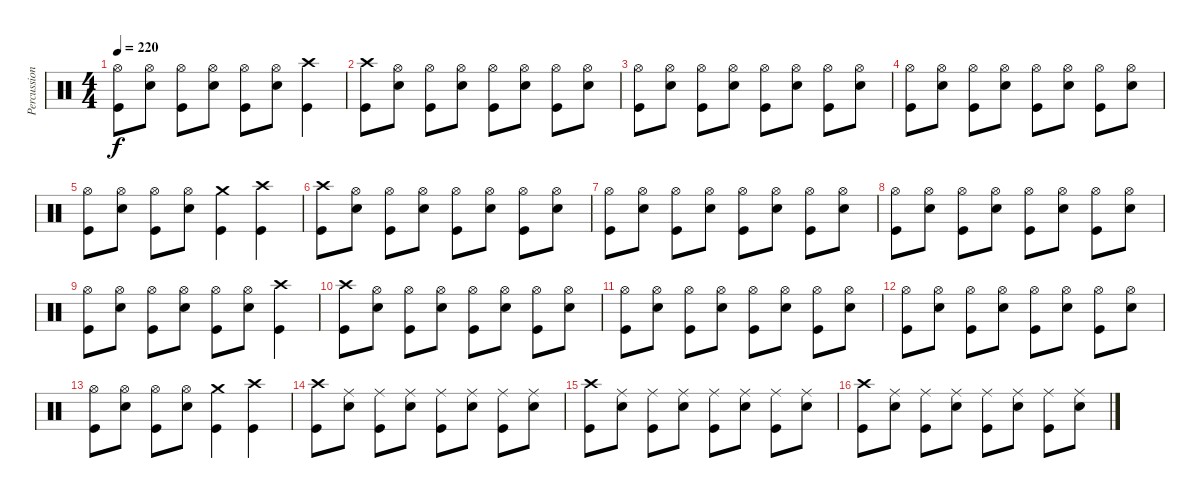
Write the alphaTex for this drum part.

\track ("Percussion" "Percussion") {instrument percussion}
\staff {score}
\articulation defaults
\ts (4 4)
\tempo 220
\clef neutral
\ks c
("Hi-Hat (open)" "Kick (hit)").8{dy f} ("Hi-Hat (open)" "Snare (hit) 2").8 ("Hi-Hat (open)" "Kick (hit)").8 ("Hi-Hat (open)" "Snare (hit) 2").8 ("Hi-Hat (open)" "Kick (hit)").8 ("Hi-Hat (open)" "Snare (hit) 2").8 ("Crash high (hit)" "Kick (hit)").4 |
("Crash high (hit)" "Kick (hit)").8 ("Hi-Hat (open)" "Snare (hit) 2").8 ("Hi-Hat (open)" "Kick (hit)").8 ("Hi-Hat (open)" "Snare (hit) 2").8 ("Hi-Hat (open)" "Kick (hit)").8 ("Hi-Hat (open)" "Snare (hit) 2").8 ("Hi-Hat (open)" "Kick (hit)").8 ("Hi-Hat (open)" "Snare (hit) 2").8 |
("Hi-Hat (open)" "Kick (hit)").8 ("Hi-Hat (open)" "Snare (hit) 2").8 ("Hi-Hat (open)" "Kick (hit)").8 ("Hi-Hat (open)" "Snare (hit) 2").8 ("Hi-Hat (open)" "Kick (hit)").8 ("Hi-Hat (open)" "Snare (hit) 2").8 ("Hi-Hat (open)" "Kick (hit)").8 ("Hi-Hat (open)" "Snare (hit) 2").8 |
("Hi-Hat (open)" "Kick (hit)").8 ("Hi-Hat (open)" "Snare (hit) 2").8 ("Hi-Hat (open)" "Kick (hit)").8 ("Hi-Hat (open)" "Snare (hit) 2").8 ("Hi-Hat (open)" "Kick (hit)").8 ("Hi-Hat (open)" "Snare (hit) 2").8 ("Hi-Hat (open)" "Kick (hit)").8 ("Hi-Hat (open)" "Snare (hit) 2").8 |
("Hi-Hat (open)" "Kick (hit)").8 ("Hi-Hat (open)" "Snare (hit) 2").8 ("Hi-Hat (open)" "Kick (hit)").8 ("Hi-Hat (open)" "Snare (hit) 2").8 ("Crash medium (hit)" "Kick (hit)").4 ("Crash high (hit)" "Kick (hit)").4 |
("Crash high (hit)" "Kick (hit)").8 ("Hi-Hat (open)" "Snare (hit) 2").8 ("Hi-Hat (open)" "Kick (hit)").8 ("Hi-Hat (open)" "Snare (hit) 2").8 ("Hi-Hat (open)" "Kick (hit)").8 ("Hi-Hat (open)" "Snare (hit) 2").8 ("Hi-Hat (open)" "Kick (hit)").8 ("Hi-Hat (open)" "Snare (hit) 2").8 |
("Hi-Hat (open)" "Kick (hit)").8 ("Hi-Hat (open)" "Snare (hit) 2").8 ("Hi-Hat (open)" "Kick (hit)").8 ("Hi-Hat (open)" "Snare (hit) 2").8 ("Hi-Hat (open)" "Kick (hit)").8 ("Hi-Hat (open)" "Snare (hit) 2").8 ("Hi-Hat (open)" "Kick (hit)").8 ("Hi-Hat (open)" "Snare (hit) 2").8 |
("Hi-Hat (open)" "Kick (hit)").8 ("Hi-Hat (open)" "Snare (hit) 2").8 ("Hi-Hat (open)" "Kick (hit)").8 ("Hi-Hat (open)" "Snare (hit) 2").8 ("Hi-Hat (open)" "Kick (hit)").8 ("Hi-Hat (open)" "Snare (hit) 2").8 ("Hi-Hat (open)" "Kick (hit)").8 ("Hi-Hat (open)" "Snare (hit) 2").8 |
("Hi-Hat (open)" "Kick (hit)").8 ("Hi-Hat (open)" "Snare (hit) 2").8 ("Hi-Hat (open)" "Kick (hit)").8 ("Hi-Hat (open)" "Snare (hit) 2").8 ("Hi-Hat (open)" "Kick (hit)").8 ("Hi-Hat (open)" "Snare (hit) 2").8 ("Crash high (hit)" "Kick (hit)").4 |
("Crash high (hit)" "Kick (hit)").8 ("Hi-Hat (open)" "Snare (hit) 2").8 ("Hi-Hat (open)" "Kick (hit)").8 ("Hi-Hat (open)" "Snare (hit) 2").8 ("Hi-Hat (open)" "Kick (hit)").8 ("Hi-Hat (open)" "Snare (hit) 2").8 ("Hi-Hat (open)" "Kick (hit)").8 ("Hi-Hat (open)" "Snare (hit) 2").8 |
("Hi-Hat (open)" "Kick (hit)").8 ("Hi-Hat (open)" "Snare (hit) 2").8 ("Hi-Hat (open)" "Kick (hit)").8 ("Hi-Hat (open)" "Snare (hit) 2").8 ("Hi-Hat (open)" "Kick (hit)").8 ("Hi-Hat (open)" "Snare (hit) 2").8 ("Hi-Hat (open)" "Kick (hit)").8 ("Hi-Hat (open)" "Snare (hit) 2").8 |
("Hi-Hat (open)" "Kick (hit)").8 ("Hi-Hat (open)" "Snare (hit) 2").8 ("Hi-Hat (open)" "Kick (hit)").8 ("Hi-Hat (open)" "Snare (hit) 2").8 ("Hi-Hat (open)" "Kick (hit)").8 ("Hi-Hat (open)" "Snare (hit) 2").8 ("Hi-Hat (open)" "Kick (hit)").8 ("Hi-Hat (open)" "Snare (hit) 2").8 |
("Hi-Hat (open)" "Kick (hit)").8 ("Hi-Hat (open)" "Snare (hit) 2").8 ("Hi-Hat (open)" "Kick (hit)").8 ("Hi-Hat (open)" "Snare (hit) 2").8 ("Crash medium (hit)" "Kick (hit)").4 ("Crash high (hit)" "Kick (hit)").4 |
("Crash high (hit)" "Kick (hit)").8 ("Ride (middle)" "Snare (hit) 2").8 ("Ride (middle)" "Kick (hit)").8 ("Ride (middle)" "Snare (hit) 2").8 ("Ride (middle)" "Kick (hit)").8 ("Ride (middle)" "Snare (hit) 2").8 ("Ride (middle)" "Kick (hit)").8 ("Ride (middle)" "Snare (hit) 2").8 |
("Crash high (hit)" "Kick (hit)").8 ("Ride (middle)" "Snare (hit) 2").8 ("Ride (middle)" "Kick (hit)").8 ("Ride (middle)" "Snare (hit) 2").8 ("Ride (middle)" "Kick (hit)").8 ("Ride (middle)" "Snare (hit) 2").8 ("Ride (middle)" "Kick (hit)").8 ("Ride (middle)" "Snare (hit) 2").8 |
("Crash high (hit)" "Kick (hit)").8 ("Ride (middle)" "Snare (hit) 2").8 ("Ride (middle)" "Kick (hit)").8 ("Ride (middle)" "Snare (hit) 2").8 ("Ride (middle)" "Kick (hit)").8 ("Ride (middle)" "Snare (hit) 2").8 ("Ride (middle)" "Kick (hit)").8 ("Ride (middle)" "Snare (hit) 2").8
